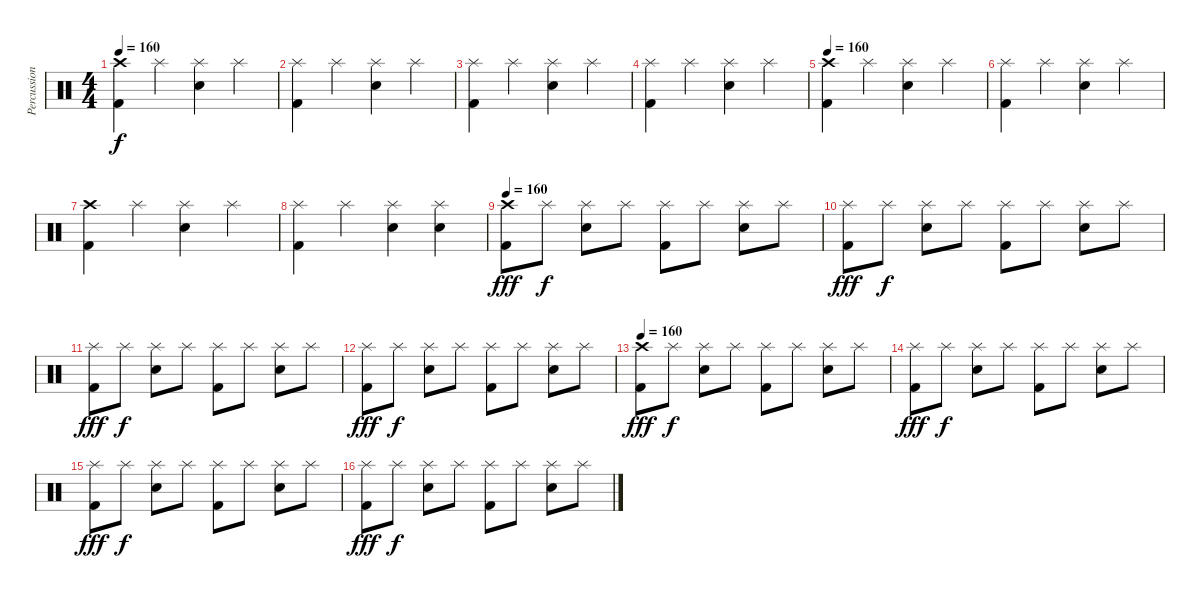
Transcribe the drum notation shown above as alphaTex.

\track ("Percussion" "Percussion") {instrument percussion}
\staff {score}
\articulation defaults
\ts (4 4)
\tempo 160
\clef neutral
\ks c
("Crash high (hit)" "Kick (hit) 2").4{dy f} "Splash (hit)".4 ("Splash (hit)" "Electric Snare (hit)").4 "Splash (hit)".4 |
("Splash (hit)" "Kick (hit) 2").4 "Splash (hit)".4 ("Splash (hit)" "Electric Snare (hit)").4 "Splash (hit)".4 |
("Splash (hit)" "Kick (hit) 2").4 "Splash (hit)".4 ("Splash (hit)" "Electric Snare (hit)").4 "Splash (hit)".4 |
("Splash (hit)" "Kick (hit) 2").4 "Splash (hit)".4 ("Splash (hit)" "Electric Snare (hit)").4 "Splash (hit)".4 |
\tempo 160
("Crash high (hit)" "Kick (hit) 2").4 "Splash (hit)".4 ("Splash (hit)" "Electric Snare (hit)").4 "Splash (hit)".4 |
("Splash (hit)" "Kick (hit) 2").4 "Splash (hit)".4 ("Splash (hit)" "Electric Snare (hit)").4 "Splash (hit)".4 |
("Crash high (hit)" "Kick (hit) 2").4 "Splash (hit)".4 ("Splash (hit)" "Electric Snare (hit)").4 "Splash (hit)".4 |
("Splash (hit)" "Kick (hit) 2").4 "Splash (hit)".4 ("Splash (hit)" "Electric Snare (hit)").4 ("Splash (hit)" "Electric Snare (hit)").4 |
\tempo 160
("Crash high (hit)" "Kick (hit) 2").8{dy fff} "Splash (hit)".8{dy f} ("Splash (hit)" "Electric Snare (hit)").8 "Splash (hit)".8 ("Splash (hit)" "Kick (hit) 2").8 "Splash (hit)".8 ("Splash (hit)" "Electric Snare (hit)").8 "Splash (hit)".8 |
("Splash (hit)" "Kick (hit) 2").8{dy fff} "Splash (hit)".8{dy f} ("Splash (hit)" "Electric Snare (hit)").8 "Splash (hit)".8 ("Splash (hit)" "Kick (hit) 2").8 "Splash (hit)".8 ("Splash (hit)" "Electric Snare (hit)").8 "Splash (hit)".8 |
("Splash (hit)" "Kick (hit) 2").8{dy fff} "Splash (hit)".8{dy f} ("Splash (hit)" "Electric Snare (hit)").8 "Splash (hit)".8 ("Splash (hit)" "Kick (hit) 2").8 "Splash (hit)".8 ("Splash (hit)" "Electric Snare (hit)").8 "Splash (hit)".8 |
("Splash (hit)" "Kick (hit) 2").8{dy fff} "Splash (hit)".8{dy f} ("Splash (hit)" "Electric Snare (hit)").8 "Splash (hit)".8 ("Splash (hit)" "Kick (hit) 2").8 "Splash (hit)".8 ("Splash (hit)" "Electric Snare (hit)").8 "Splash (hit)".8 |
\tempo 160
("Crash high (hit)" "Kick (hit) 2").8{dy fff} "Splash (hit)".8{dy f} ("Splash (hit)" "Electric Snare (hit)").8 "Splash (hit)".8 ("Splash (hit)" "Kick (hit) 2").8 "Splash (hit)".8 ("Splash (hit)" "Electric Snare (hit)").8 "Splash (hit)".8 |
("Splash (hit)" "Kick (hit) 2").8{dy fff} "Splash (hit)".8{dy f} ("Splash (hit)" "Electric Snare (hit)").8 "Splash (hit)".8 ("Splash (hit)" "Kick (hit) 2").8 "Splash (hit)".8 ("Splash (hit)" "Electric Snare (hit)").8 "Splash (hit)".8 |
("Splash (hit)" "Kick (hit) 2").8{dy fff} "Splash (hit)".8{dy f} ("Splash (hit)" "Electric Snare (hit)").8 "Splash (hit)".8 ("Splash (hit)" "Kick (hit) 2").8 "Splash (hit)".8 ("Splash (hit)" "Electric Snare (hit)").8 "Splash (hit)".8 |
("Splash (hit)" "Kick (hit) 2").8{dy fff} "Splash (hit)".8{dy f} ("Splash (hit)" "Electric Snare (hit)").8 "Splash (hit)".8 ("Splash (hit)" "Kick (hit) 2").8 "Splash (hit)".8 ("Splash (hit)" "Electric Snare (hit)").8 "Splash (hit)".8
